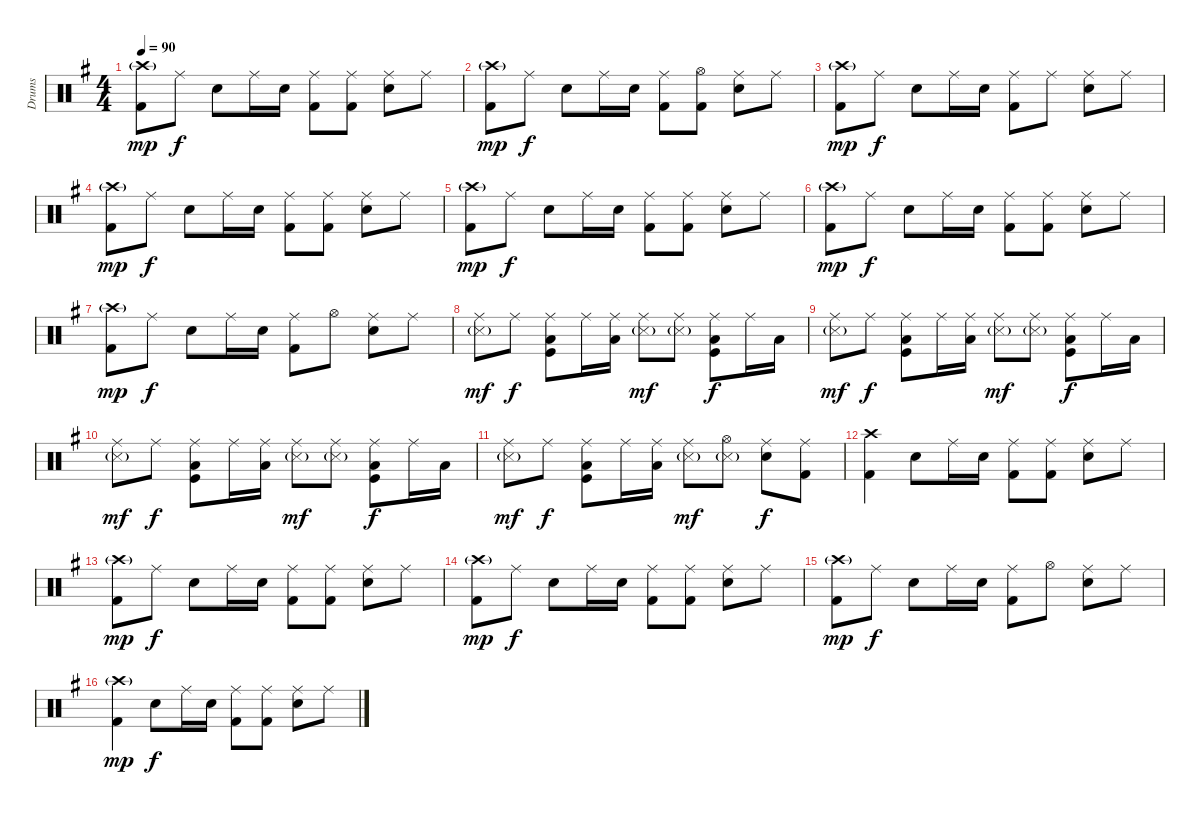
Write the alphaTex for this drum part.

\track ("Drums" "Drums") {instrument percussion}
\staff {score}
\articulation defaults
\ts (4 4)
\tempo 90
\clef neutral
\ks g
("Crash high (hit)"{g} "Kick (hit) 2").8{dy mp} "Ride (middle)".8{dy f} "Snare (hit) 2".8 "Ride (middle)".16 "Snare (hit) 2".16 ("Ride (middle)" "Kick (hit) 2").8 ("Ride (middle)" "Kick (hit) 2").8 ("Ride (middle)" "Snare (hit) 2").8 "Ride (middle)".8 |
("Crash high (hit)"{g} "Kick (hit) 2").8{dy mp} "Ride (middle)".8{dy f} "Snare (hit) 2".8 "Ride (middle)".16 "Snare (hit) 2".16 ("Ride (middle)" "Kick (hit) 2").8 ("Hi-Hat (open)" "Kick (hit) 2").8 ("Ride (middle)" "Snare (hit) 2").8 "Ride (middle)".8 |
("Crash high (hit)"{g} "Kick (hit) 2").8{dy mp} "Ride (middle)".8{dy f} "Snare (hit) 2".8 "Ride (middle)".16 "Snare (hit) 2".16 ("Ride (middle)" "Kick (hit) 2").8 "Ride (middle)".8 ("Ride (middle)" "Snare (hit) 2").8 "Ride (middle)".8 |
("Crash high (hit)"{g} "Kick (hit) 2").8{dy mp} "Ride (middle)".8{dy f} "Snare (hit) 2".8 "Ride (middle)".16 "Snare (hit) 2".16 ("Ride (middle)" "Kick (hit) 2").8 ("Ride (middle)" "Kick (hit) 2").8 ("Ride (middle)" "Snare (hit) 2").8 "Ride (middle)".8 |
("Crash high (hit)"{g} "Kick (hit) 2").8{dy mp} "Ride (middle)".8{dy f} "Snare (hit) 2".8 "Ride (middle)".16 "Snare (hit) 2".16 ("Ride (middle)" "Kick (hit) 2").8 ("Ride (middle)" "Kick (hit) 2").8 ("Ride (middle)" "Snare (hit) 2").8 "Ride (middle)".8 |
("Crash high (hit)"{g} "Kick (hit) 2").8{dy mp} "Ride (middle)".8{dy f} "Snare (hit) 2".8 "Ride (middle)".16 "Snare (hit) 2".16 ("Ride (middle)" "Kick (hit) 2").8 ("Ride (middle)" "Kick (hit) 2").8 ("Ride (middle)" "Snare (hit) 2").8 "Ride (middle)".8 |
("Crash high (hit)"{g} "Kick (hit) 2").8{dy mp} "Ride (middle)".8{dy f} "Snare (hit) 2".8 "Ride (middle)".16 "Snare (hit) 2".16 ("Ride (middle)" "Kick (hit) 2").8 "Hi-Hat (open)".8 ("Ride (middle)" "Snare (hit) 2").8 "Ride (middle)".8 |
("Ride (middle)" "Metronome (hit)"{g}).8{dy mf} "Ride (middle)".8{dy f} ("Ride (middle)" "Kick (hit)" "Low Floor Tom (hit)").8 "Ride (middle)".16 ("Ride (middle)" "Low Floor Tom (hit)").16 ("Ride (middle)" "Metronome (hit)"{g}).8{dy mf} ("Ride (middle)" "Metronome (hit)"{g}).8 ("Ride (middle)" "Kick (hit)" "Low Floor Tom (hit)").8{dy f} "Ride (middle)".16 "Low Floor Tom (hit)".16 |
("Ride (middle)" "Metronome (hit)"{g}).8{dy mf} "Ride (middle)".8{dy f} ("Ride (middle)" "Kick (hit)" "Low Floor Tom (hit)").8 "Ride (middle)".16 ("Ride (middle)" "Low Floor Tom (hit)").16 ("Ride (middle)" "Metronome (hit)"{g}).8{dy mf} ("Ride (middle)" "Metronome (hit)"{g}).8 ("Ride (middle)" "Kick (hit)" "Low Floor Tom (hit)").8{dy f} "Ride (middle)".16 "Low Floor Tom (hit)".16 |
("Ride (middle)" "Metronome (hit)"{g}).8{dy mf} "Ride (middle)".8{dy f} ("Ride (middle)" "Kick (hit)" "Low Floor Tom (hit)").8 "Ride (middle)".16 ("Ride (middle)" "Low Floor Tom (hit)").16 ("Ride (middle)" "Metronome (hit)"{g}).8{dy mf} ("Ride (middle)" "Metronome (hit)"{g}).8 ("Ride (middle)" "Kick (hit)" "Low Floor Tom (hit)").8{dy f} "Ride (middle)".16 "Low Floor Tom (hit)".16 |
("Ride (middle)" "Metronome (hit)"{g}).8{dy mf} "Ride (middle)".8{dy f} ("Ride (middle)" "Kick (hit)" "Low Floor Tom (hit)").8 "Ride (middle)".16 ("Ride (middle)" "Low Floor Tom (hit)").16 ("Ride (middle)" "Metronome (hit)"{g}).8{dy mf} ("Hi-Hat (open)" "Metronome (hit)"{g}).8 ("Ride (middle)" "Snare (hit) 2").8{dy f} ("Ride (middle)" "Kick (hit) 2").8 |
("Crash high (hit)" "Kick (hit) 2").4 "Snare (hit) 2".8 "Ride (middle)".16 "Snare (hit) 2".16 ("Ride (middle)" "Kick (hit) 2").8 ("Ride (middle)" "Kick (hit) 2").8 ("Ride (middle)" "Snare (hit) 2").8 "Ride (middle)".8 |
("Crash high (hit)"{g} "Kick (hit) 2").8{dy mp} "Ride (middle)".8{dy f} "Snare (hit) 2".8 "Ride (middle)".16 "Snare (hit) 2".16 ("Ride (middle)" "Kick (hit) 2").8 ("Ride (middle)" "Kick (hit) 2").8 ("Ride (middle)" "Snare (hit) 2").8 "Ride (middle)".8 |
("Crash high (hit)"{g} "Kick (hit) 2").8{dy mp} "Ride (middle)".8{dy f} "Snare (hit) 2".8 "Ride (middle)".16 "Snare (hit) 2".16 ("Ride (middle)" "Kick (hit) 2").8 ("Ride (middle)" "Kick (hit) 2").8 ("Ride (middle)" "Snare (hit) 2").8 "Ride (middle)".8 |
("Crash high (hit)"{g} "Kick (hit) 2").8{dy mp} "Ride (middle)".8{dy f} "Snare (hit) 2".8 "Ride (middle)".16 "Snare (hit) 2".16 ("Ride (middle)" "Kick (hit) 2").8 "Hi-Hat (open)".8 ("Ride (middle)" "Snare (hit) 2").8 "Ride (middle)".8 |
("Crash high (hit)"{g} "Kick (hit) 2").4{dy mp} "Snare (hit) 2".8{dy f} "Ride (middle)".16 "Snare (hit) 2".16 ("Ride (middle)" "Kick (hit) 2").8 ("Ride (middle)" "Kick (hit) 2").8 ("Ride (middle)" "Snare (hit) 2").8 "Ride (middle)".8
